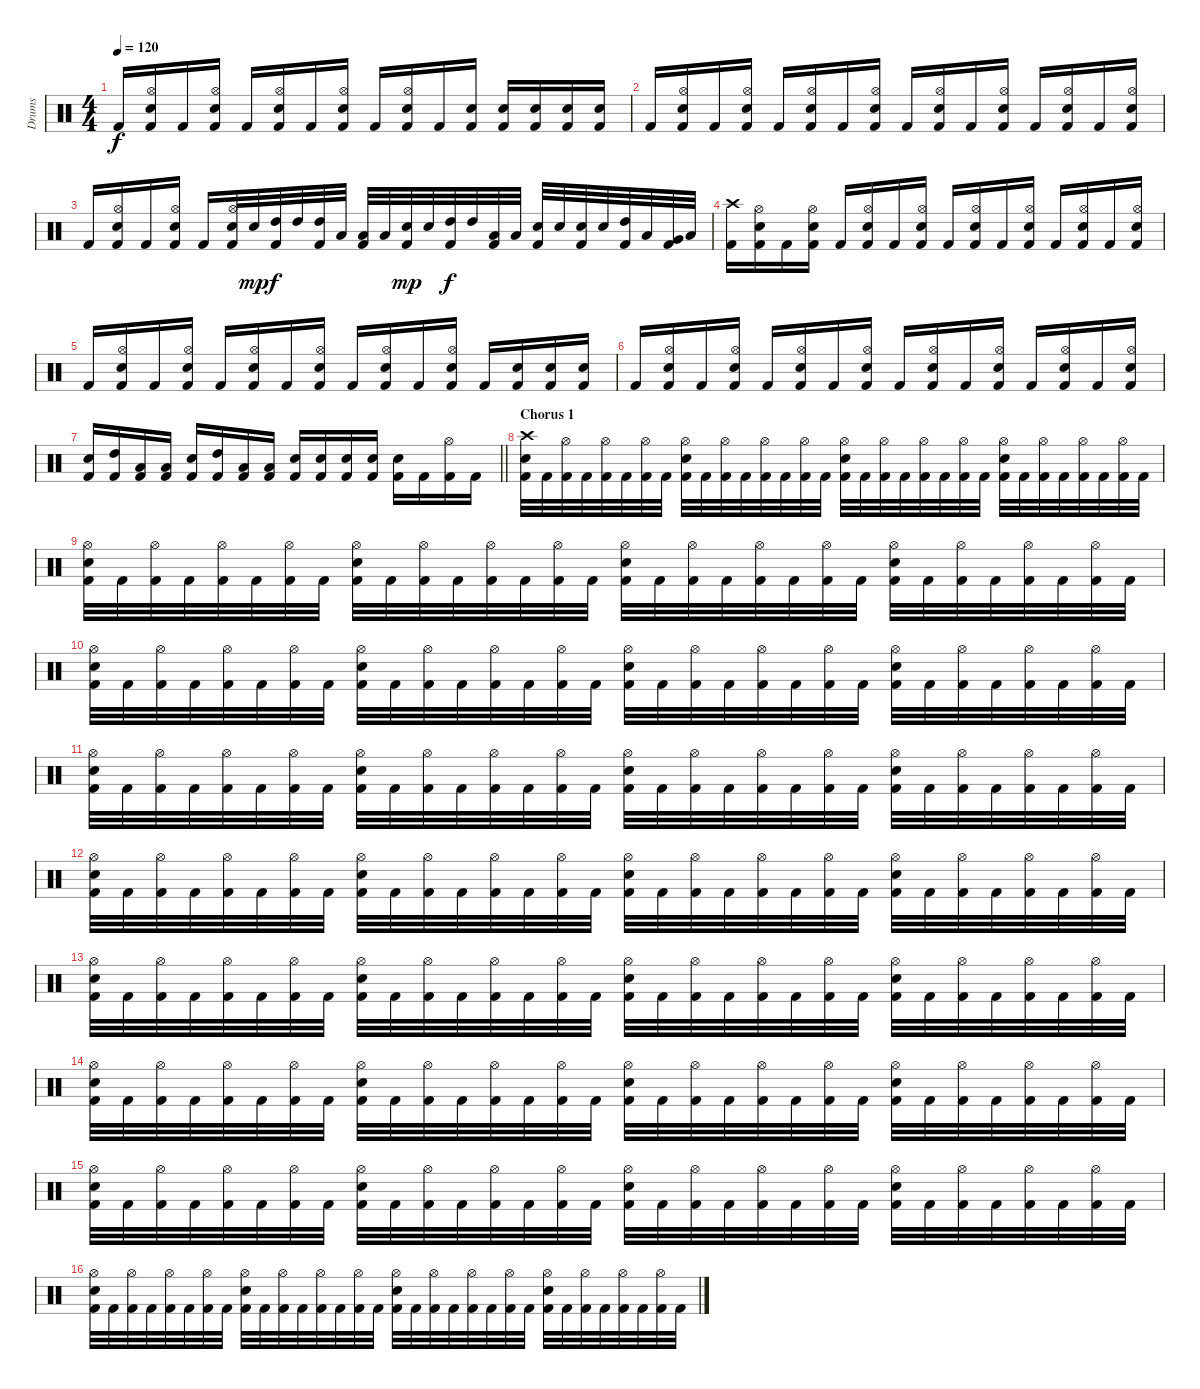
\track ("Drums" "Drums") {instrument percussion}
\staff {score}
\articulation defaults
\ts (4 4)
\tempo 120
\clef neutral
\ks c "Kick (hit) 2".16{dy f}
("Hi-Hat (open)" "Electric Snare (hit)" "Kick (hit) 2").16 "Kick (hit) 2".16 ("Hi-Hat (open)" "Electric Snare (hit)" "Kick (hit) 2").16 "Kick (hit) 2".16 ("Hi-Hat (open)" "Electric Snare (hit)" "Kick (hit) 2").16 "Kick (hit) 2".16 ("Hi-Hat (open)" "Electric Snare (hit)" "Kick (hit) 2").16 "Kick (hit) 2".16 ("Hi-Hat (open)" "Electric Snare (hit)" "Kick (hit) 2").16 "Kick (hit) 2".16 ("Electric Snare (hit)" "Kick (hit) 2").16 ("Electric Snare (hit)" "Kick (hit) 2").16 ("Electric Snare (hit)" "Kick (hit) 2").16 ("Electric Snare (hit)" "Kick (hit) 2").16 ("Electric Snare (hit)" "Kick (hit) 2").16 |
"Kick (hit) 2".16 ("Hi-Hat (open)" "Electric Snare (hit)" "Kick (hit) 2").16 "Kick (hit) 2".16 ("Hi-Hat (open)" "Electric Snare (hit)" "Kick (hit) 2").16 "Kick (hit) 2".16 ("Hi-Hat (open)" "Electric Snare (hit)" "Kick (hit) 2").16 "Kick (hit) 2".16 ("Hi-Hat (open)" "Electric Snare (hit)" "Kick (hit) 2").16 "Kick (hit) 2".16 ("Hi-Hat (open)" "Electric Snare (hit)" "Kick (hit) 2").16 "Kick (hit) 2".16 ("Hi-Hat (open)" "Electric Snare (hit)" "Kick (hit) 2").16 "Kick (hit) 2".16 ("Hi-Hat (open)" "Electric Snare (hit)" "Kick (hit) 2").16 "Kick (hit) 2".16 ("Hi-Hat (open)" "Electric Snare (hit)" "Kick (hit) 2").16 |
"Kick (hit) 2".16 ("Hi-Hat (open)" "Electric Snare (hit)" "Kick (hit) 2").16 "Kick (hit) 2".16 ("Hi-Hat (open)" "Electric Snare (hit)" "Kick (hit) 2").16 "Kick (hit) 2".16 ("Hi-Hat (open)" "Electric Snare (hit)" "Kick (hit) 2").32 "Electric Snare (hit)".32{dy mp} ("High Tom (hit)" "Kick (hit) 2").32{dy f} "High Tom (hit)".32 ("High Tom (hit)" "Kick (hit) 2").32 "Low Tom (hit)".32 ("Low Tom (hit)" "Kick (hit) 2").32 "Low Tom (hit)".32 ("Electric Snare (hit)" "Kick (hit) 2").32{dy mp} "Electric Snare (hit)".32 ("High Tom (hit)" "Kick (hit) 2").32{dy f} "High Tom (hit)".32 ("Low Tom (hit)" "Kick (hit) 2").32 "Low Tom (hit)".32 ("Electric Snare (hit)" "Kick (hit) 2").32 "Electric Snare (hit)".32 ("Electric Snare (hit)" "Kick (hit) 2").32 "Electric Snare (hit)".32 ("High Tom (hit)" "Kick (hit) 2").32 "Low Tom (hit)".32 ("Very Low Tom (hit)" "Kick (hit) 2").32 "Low Floor Tom (hit)".32 |
("Crash high (hit)" "Kick (hit) 2").16 ("Hi-Hat (open)" "Electric Snare (hit)" "Kick (hit) 2").16 "Kick (hit) 2".16 ("Hi-Hat (open)" "Electric Snare (hit)" "Kick (hit) 2").16 "Kick (hit) 2".16 ("Hi-Hat (open)" "Electric Snare (hit)" "Kick (hit) 2").16 "Kick (hit) 2".16 ("Hi-Hat (open)" "Electric Snare (hit)" "Kick (hit) 2").16 "Kick (hit) 2".16 ("Hi-Hat (open)" "Electric Snare (hit)" "Kick (hit) 2").16 "Kick (hit) 2".16 ("Hi-Hat (open)" "Electric Snare (hit)" "Kick (hit) 2").16 "Kick (hit) 2".16 ("Hi-Hat (open)" "Electric Snare (hit)" "Kick (hit) 2").16 "Kick (hit) 2".16 ("Hi-Hat (open)" "Electric Snare (hit)" "Kick (hit) 2").16 |
"Kick (hit) 2".16 ("Hi-Hat (open)" "Electric Snare (hit)" "Kick (hit) 2").16 "Kick (hit) 2".16 ("Hi-Hat (open)" "Electric Snare (hit)" "Kick (hit) 2").16 "Kick (hit) 2".16 ("Hi-Hat (open)" "Electric Snare (hit)" "Kick (hit) 2").16 "Kick (hit) 2".16 ("Hi-Hat (open)" "Electric Snare (hit)" "Kick (hit) 2").16 "Kick (hit) 2".16 ("Hi-Hat (open)" "Electric Snare (hit)" "Kick (hit) 2").16 "Kick (hit) 2".16 ("Hi-Hat (open)" "Electric Snare (hit)" "Kick (hit) 2").16 "Kick (hit) 2".16 ("Electric Snare (hit)" "Kick (hit) 2").16 ("Electric Snare (hit)" "Kick (hit) 2").16 ("Electric Snare (hit)" "Kick (hit) 2").16 |
"Kick (hit) 2".16 ("Hi-Hat (open)" "Electric Snare (hit)" "Kick (hit) 2").16 "Kick (hit) 2".16 ("Hi-Hat (open)" "Electric Snare (hit)" "Kick (hit) 2").16 "Kick (hit) 2".16 ("Hi-Hat (open)" "Electric Snare (hit)" "Kick (hit) 2").16 "Kick (hit) 2".16 ("Hi-Hat (open)" "Electric Snare (hit)" "Kick (hit) 2").16 "Kick (hit) 2".16 ("Hi-Hat (open)" "Electric Snare (hit)" "Kick (hit) 2").16 "Kick (hit) 2".16 ("Hi-Hat (open)" "Electric Snare (hit)" "Kick (hit) 2").16 "Kick (hit) 2".16 ("Hi-Hat (open)" "Electric Snare (hit)" "Kick (hit) 2").16 "Kick (hit) 2".16 ("Hi-Hat (open)" "Electric Snare (hit)" "Kick (hit) 2").16 |
\barLineRight lightlight
("Electric Snare (hit)" "Kick (hit) 2").16 ("High Tom (hit)" "Kick (hit) 2").16 ("Low Tom (hit)" "Kick (hit) 2").16 ("Low Floor Tom (hit)" "Kick (hit) 2").16 ("Electric Snare (hit)" "Kick (hit) 2").16 ("High Tom (hit)" "Kick (hit) 2").16 ("Low Tom (hit)" "Kick (hit) 2").16 ("Low Floor Tom (hit)" "Kick (hit) 2").16 ("Electric Snare (hit)" "Kick (hit) 2").16 ("Electric Snare (hit)" "Kick (hit) 2").16 ("Electric Snare (hit)" "Kick (hit) 2").16 ("Electric Snare (hit)" "Kick (hit) 2").16 ("Electric Snare (hit)" "Kick (hit) 2").16 "Kick (hit) 2".16 ("Hi-Hat (open)" "Kick (hit) 2").16 "Kick (hit) 2".16 |
\section ("" "Chorus 1")
("Crash high (hit)" "Electric Snare (hit)" "Kick (hit) 2").32 "Kick (hit) 2".32 ("Hi-Hat (open)" "Kick (hit) 2").32 "Kick (hit) 2".32 ("Hi-Hat (open)" "Kick (hit) 2").32 "Kick (hit) 2".32 ("Hi-Hat (open)" "Kick (hit) 2").32 "Kick (hit) 2".32 ("Hi-Hat (open)" "Electric Snare (hit)" "Kick (hit) 2").32 "Kick (hit) 2".32 ("Hi-Hat (open)" "Kick (hit) 2").32 "Kick (hit) 2".32 ("Hi-Hat (open)" "Kick (hit) 2").32 "Kick (hit) 2".32 ("Hi-Hat (open)" "Kick (hit) 2").32 "Kick (hit) 2".32 ("Hi-Hat (open)" "Electric Snare (hit)" "Kick (hit) 2").32 "Kick (hit) 2".32 ("Hi-Hat (open)" "Kick (hit) 2").32 "Kick (hit) 2".32 ("Hi-Hat (open)" "Kick (hit) 2").32 "Kick (hit) 2".32 ("Hi-Hat (open)" "Kick (hit) 2").32 "Kick (hit) 2".32 ("Hi-Hat (open)" "Electric Snare (hit)" "Kick (hit) 2").32 "Kick (hit) 2".32 ("Hi-Hat (open)" "Kick (hit) 2").32 "Kick (hit) 2".32 ("Hi-Hat (open)" "Kick (hit) 2").32 "Kick (hit) 2".32 ("Hi-Hat (open)" "Kick (hit) 2").32 "Kick (hit) 2".32 |
("Hi-Hat (open)" "Electric Snare (hit)" "Kick (hit) 2").32 "Kick (hit) 2".32 ("Hi-Hat (open)" "Kick (hit) 2").32 "Kick (hit) 2".32 ("Hi-Hat (open)" "Kick (hit) 2").32 "Kick (hit) 2".32 ("Hi-Hat (open)" "Kick (hit) 2").32 "Kick (hit) 2".32 ("Hi-Hat (open)" "Electric Snare (hit)" "Kick (hit) 2").32 "Kick (hit) 2".32 ("Hi-Hat (open)" "Kick (hit) 2").32 "Kick (hit) 2".32 ("Hi-Hat (open)" "Kick (hit) 2").32 "Kick (hit) 2".32 ("Hi-Hat (open)" "Kick (hit) 2").32 "Kick (hit) 2".32 ("Hi-Hat (open)" "Electric Snare (hit)" "Kick (hit) 2").32 "Kick (hit) 2".32 ("Hi-Hat (open)" "Kick (hit) 2").32 "Kick (hit) 2".32 ("Hi-Hat (open)" "Kick (hit) 2").32 "Kick (hit) 2".32 ("Hi-Hat (open)" "Kick (hit) 2").32 "Kick (hit) 2".32 ("Hi-Hat (open)" "Electric Snare (hit)" "Kick (hit) 2").32 "Kick (hit) 2".32 ("Hi-Hat (open)" "Kick (hit) 2").32 "Kick (hit) 2".32 ("Hi-Hat (open)" "Kick (hit) 2").32 "Kick (hit) 2".32 ("Hi-Hat (open)" "Kick (hit) 2").32 "Kick (hit) 2".32 |
("Hi-Hat (open)" "Electric Snare (hit)" "Kick (hit) 2").32 "Kick (hit) 2".32 ("Hi-Hat (open)" "Kick (hit) 2").32 "Kick (hit) 2".32 ("Hi-Hat (open)" "Kick (hit) 2").32 "Kick (hit) 2".32 ("Hi-Hat (open)" "Kick (hit) 2").32 "Kick (hit) 2".32 ("Hi-Hat (open)" "Electric Snare (hit)" "Kick (hit) 2").32 "Kick (hit) 2".32 ("Hi-Hat (open)" "Kick (hit) 2").32 "Kick (hit) 2".32 ("Hi-Hat (open)" "Kick (hit) 2").32 "Kick (hit) 2".32 ("Hi-Hat (open)" "Kick (hit) 2").32 "Kick (hit) 2".32 ("Hi-Hat (open)" "Electric Snare (hit)" "Kick (hit) 2").32 "Kick (hit) 2".32 ("Hi-Hat (open)" "Kick (hit) 2").32 "Kick (hit) 2".32 ("Hi-Hat (open)" "Kick (hit) 2").32 "Kick (hit) 2".32 ("Hi-Hat (open)" "Kick (hit) 2").32 "Kick (hit) 2".32 ("Hi-Hat (open)" "Electric Snare (hit)" "Kick (hit) 2").32 "Kick (hit) 2".32 ("Hi-Hat (open)" "Kick (hit) 2").32 "Kick (hit) 2".32 ("Hi-Hat (open)" "Kick (hit) 2").32 "Kick (hit) 2".32 ("Hi-Hat (open)" "Kick (hit) 2").32 "Kick (hit) 2".32 |
("Hi-Hat (open)" "Electric Snare (hit)" "Kick (hit) 2").32 "Kick (hit) 2".32 ("Hi-Hat (open)" "Kick (hit) 2").32 "Kick (hit) 2".32 ("Hi-Hat (open)" "Kick (hit) 2").32 "Kick (hit) 2".32 ("Hi-Hat (open)" "Kick (hit) 2").32 "Kick (hit) 2".32 ("Hi-Hat (open)" "Electric Snare (hit)" "Kick (hit) 2").32 "Kick (hit) 2".32 ("Hi-Hat (open)" "Kick (hit) 2").32 "Kick (hit) 2".32 ("Hi-Hat (open)" "Kick (hit) 2").32 "Kick (hit) 2".32 ("Hi-Hat (open)" "Kick (hit) 2").32 "Kick (hit) 2".32 ("Hi-Hat (open)" "Electric Snare (hit)" "Kick (hit) 2").32 "Kick (hit) 2".32 ("Hi-Hat (open)" "Kick (hit) 2").32 "Kick (hit) 2".32 ("Hi-Hat (open)" "Kick (hit) 2").32 "Kick (hit) 2".32 ("Hi-Hat (open)" "Kick (hit) 2").32 "Kick (hit) 2".32 ("Hi-Hat (open)" "Electric Snare (hit)" "Kick (hit) 2").32 "Kick (hit) 2".32 ("Hi-Hat (open)" "Kick (hit) 2").32 "Kick (hit) 2".32 ("Hi-Hat (open)" "Kick (hit) 2").32 "Kick (hit) 2".32 ("Hi-Hat (open)" "Kick (hit) 2").32 "Kick (hit) 2".32 |
("Hi-Hat (open)" "Electric Snare (hit)" "Kick (hit) 2").32 "Kick (hit) 2".32 ("Hi-Hat (open)" "Kick (hit) 2").32 "Kick (hit) 2".32 ("Hi-Hat (open)" "Kick (hit) 2").32 "Kick (hit) 2".32 ("Hi-Hat (open)" "Kick (hit) 2").32 "Kick (hit) 2".32 ("Hi-Hat (open)" "Electric Snare (hit)" "Kick (hit) 2").32 "Kick (hit) 2".32 ("Hi-Hat (open)" "Kick (hit) 2").32 "Kick (hit) 2".32 ("Hi-Hat (open)" "Kick (hit) 2").32 "Kick (hit) 2".32 ("Hi-Hat (open)" "Kick (hit) 2").32 "Kick (hit) 2".32 ("Hi-Hat (open)" "Electric Snare (hit)" "Kick (hit) 2").32 "Kick (hit) 2".32 ("Hi-Hat (open)" "Kick (hit) 2").32 "Kick (hit) 2".32 ("Hi-Hat (open)" "Kick (hit) 2").32 "Kick (hit) 2".32 ("Hi-Hat (open)" "Kick (hit) 2").32 "Kick (hit) 2".32 ("Hi-Hat (open)" "Electric Snare (hit)" "Kick (hit) 2").32 "Kick (hit) 2".32 ("Hi-Hat (open)" "Kick (hit) 2").32 "Kick (hit) 2".32 ("Hi-Hat (open)" "Kick (hit) 2").32 "Kick (hit) 2".32 ("Hi-Hat (open)" "Kick (hit) 2").32 "Kick (hit) 2".32 |
("Hi-Hat (open)" "Electric Snare (hit)" "Kick (hit) 2").32 "Kick (hit) 2".32 ("Hi-Hat (open)" "Kick (hit) 2").32 "Kick (hit) 2".32 ("Hi-Hat (open)" "Kick (hit) 2").32 "Kick (hit) 2".32 ("Hi-Hat (open)" "Kick (hit) 2").32 "Kick (hit) 2".32 ("Hi-Hat (open)" "Electric Snare (hit)" "Kick (hit) 2").32 "Kick (hit) 2".32 ("Hi-Hat (open)" "Kick (hit) 2").32 "Kick (hit) 2".32 ("Hi-Hat (open)" "Kick (hit) 2").32 "Kick (hit) 2".32 ("Hi-Hat (open)" "Kick (hit) 2").32 "Kick (hit) 2".32 ("Hi-Hat (open)" "Electric Snare (hit)" "Kick (hit) 2").32 "Kick (hit) 2".32 ("Hi-Hat (open)" "Kick (hit) 2").32 "Kick (hit) 2".32 ("Hi-Hat (open)" "Kick (hit) 2").32 "Kick (hit) 2".32 ("Hi-Hat (open)" "Kick (hit) 2").32 "Kick (hit) 2".32 ("Hi-Hat (open)" "Electric Snare (hit)" "Kick (hit) 2").32 "Kick (hit) 2".32 ("Hi-Hat (open)" "Kick (hit) 2").32 "Kick (hit) 2".32 ("Hi-Hat (open)" "Kick (hit) 2").32 "Kick (hit) 2".32 ("Hi-Hat (open)" "Kick (hit) 2").32 "Kick (hit) 2".32 |
("Hi-Hat (open)" "Electric Snare (hit)" "Kick (hit) 2").32 "Kick (hit) 2".32 ("Hi-Hat (open)" "Kick (hit) 2").32 "Kick (hit) 2".32 ("Hi-Hat (open)" "Kick (hit) 2").32 "Kick (hit) 2".32 ("Hi-Hat (open)" "Kick (hit) 2").32 "Kick (hit) 2".32 ("Hi-Hat (open)" "Electric Snare (hit)" "Kick (hit) 2").32 "Kick (hit) 2".32 ("Hi-Hat (open)" "Kick (hit) 2").32 "Kick (hit) 2".32 ("Hi-Hat (open)" "Kick (hit) 2").32 "Kick (hit) 2".32 ("Hi-Hat (open)" "Kick (hit) 2").32 "Kick (hit) 2".32 ("Hi-Hat (open)" "Electric Snare (hit)" "Kick (hit) 2").32 "Kick (hit) 2".32 ("Hi-Hat (open)" "Kick (hit) 2").32 "Kick (hit) 2".32 ("Hi-Hat (open)" "Kick (hit) 2").32 "Kick (hit) 2".32 ("Hi-Hat (open)" "Kick (hit) 2").32 "Kick (hit) 2".32 ("Hi-Hat (open)" "Electric Snare (hit)" "Kick (hit) 2").32 "Kick (hit) 2".32 ("Hi-Hat (open)" "Kick (hit) 2").32 "Kick (hit) 2".32 ("Hi-Hat (open)" "Kick (hit) 2").32 "Kick (hit) 2".32 ("Hi-Hat (open)" "Kick (hit) 2").32 "Kick (hit) 2".32 |
("Hi-Hat (open)" "Electric Snare (hit)" "Kick (hit) 2").32 "Kick (hit) 2".32 ("Hi-Hat (open)" "Kick (hit) 2").32 "Kick (hit) 2".32 ("Hi-Hat (open)" "Kick (hit) 2").32 "Kick (hit) 2".32 ("Hi-Hat (open)" "Kick (hit) 2").32 "Kick (hit) 2".32 ("Hi-Hat (open)" "Electric Snare (hit)" "Kick (hit) 2").32 "Kick (hit) 2".32 ("Hi-Hat (open)" "Kick (hit) 2").32 "Kick (hit) 2".32 ("Hi-Hat (open)" "Kick (hit) 2").32 "Kick (hit) 2".32 ("Hi-Hat (open)" "Kick (hit) 2").32 "Kick (hit) 2".32 ("Hi-Hat (open)" "Electric Snare (hit)" "Kick (hit) 2").32 "Kick (hit) 2".32 ("Hi-Hat (open)" "Kick (hit) 2").32 "Kick (hit) 2".32 ("Hi-Hat (open)" "Kick (hit) 2").32 "Kick (hit) 2".32 ("Hi-Hat (open)" "Kick (hit) 2").32 "Kick (hit) 2".32 ("Hi-Hat (open)" "Electric Snare (hit)" "Kick (hit) 2").32 "Kick (hit) 2".32 ("Hi-Hat (open)" "Kick (hit) 2").32 "Kick (hit) 2".32 ("Hi-Hat (open)" "Kick (hit) 2").32 "Kick (hit) 2".32 ("Hi-Hat (open)" "Kick (hit) 2").32 "Kick (hit) 2".32 |
("Hi-Hat (open)" "Electric Snare (hit)" "Kick (hit) 2").32 "Kick (hit) 2".32 ("Hi-Hat (open)" "Kick (hit) 2").32 "Kick (hit) 2".32 ("Hi-Hat (open)" "Kick (hit) 2").32 "Kick (hit) 2".32 ("Hi-Hat (open)" "Kick (hit) 2").32 "Kick (hit) 2".32 ("Hi-Hat (open)" "Electric Snare (hit)" "Kick (hit) 2").32 "Kick (hit) 2".32 ("Hi-Hat (open)" "Kick (hit) 2").32 "Kick (hit) 2".32 ("Hi-Hat (open)" "Kick (hit) 2").32 "Kick (hit) 2".32 ("Hi-Hat (open)" "Kick (hit) 2").32 "Kick (hit) 2".32 ("Hi-Hat (open)" "Electric Snare (hit)" "Kick (hit) 2").32 "Kick (hit) 2".32 ("Hi-Hat (open)" "Kick (hit) 2").32 "Kick (hit) 2".32 ("Hi-Hat (open)" "Kick (hit) 2").32 "Kick (hit) 2".32 ("Hi-Hat (open)" "Kick (hit) 2").32 "Kick (hit) 2".32 ("Hi-Hat (open)" "Electric Snare (hit)" "Kick (hit) 2").32 "Kick (hit) 2".32 ("Hi-Hat (open)" "Kick (hit) 2").32 "Kick (hit) 2".32 ("Hi-Hat (open)" "Kick (hit) 2").32 "Kick (hit) 2".32 ("Hi-Hat (open)" "Kick (hit) 2").32 "Kick (hit) 2".32
